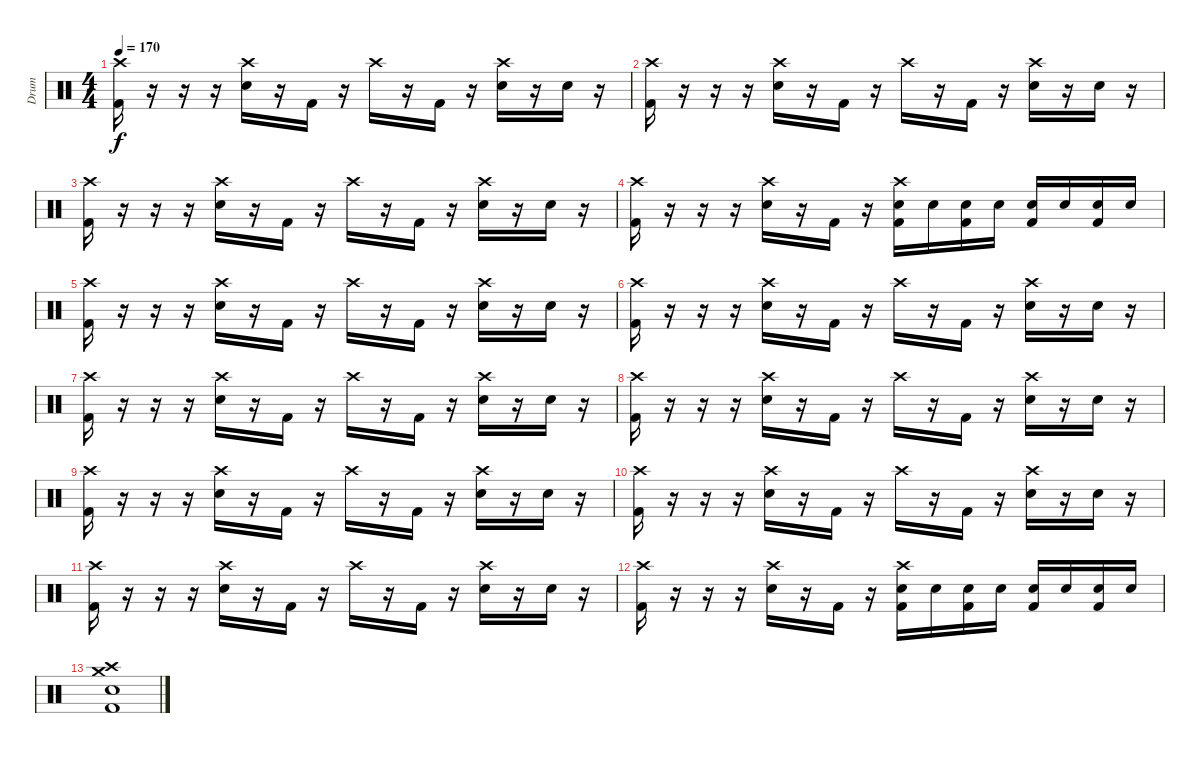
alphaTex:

\track ("Drum" "Drum") {instrument percussion}
\staff {score}
\articulation defaults
\ts (4 4)
\tempo 170
\clef neutral
\ks c
("Crash high (hit)" "Kick (hit) 2").16{dy f} r.16 r.16 r.16 ("Crash high (hit)" "Electric Snare (hit)").16 r.16 "Kick (hit) 2".16 r.16 "Crash high (hit)".16 r.16 "Kick (hit) 2".16 r.16 ("Crash high (hit)" "Electric Snare (hit)").16 r.16 "Electric Snare (hit)".16 r.16 |
("Crash high (hit)" "Kick (hit) 2").16 r.16 r.16 r.16 ("Crash high (hit)" "Electric Snare (hit)").16 r.16 "Kick (hit) 2".16 r.16 "Crash high (hit)".16 r.16 "Kick (hit) 2".16 r.16 ("Crash high (hit)" "Electric Snare (hit)").16 r.16 "Electric Snare (hit)".16 r.16 |
("Crash high (hit)" "Kick (hit) 2").16 r.16 r.16 r.16 ("Crash high (hit)" "Electric Snare (hit)").16 r.16 "Kick (hit) 2".16 r.16 "Crash high (hit)".16 r.16 "Kick (hit) 2".16 r.16 ("Crash high (hit)" "Electric Snare (hit)").16 r.16 "Electric Snare (hit)".16 r.16 |
("Crash high (hit)" "Kick (hit) 2").16 r.16 r.16 r.16 ("Crash high (hit)" "Electric Snare (hit)").16 r.16 "Kick (hit) 2".16 r.16 ("Crash high (hit)" "Electric Snare (hit)" "Kick (hit) 2").16 "Electric Snare (hit)".16 ("Electric Snare (hit)" "Kick (hit) 2").16 "Electric Snare (hit)".16 ("Electric Snare (hit)" "Kick (hit) 2").16 "Electric Snare (hit)".16 ("Electric Snare (hit)" "Kick (hit) 2").16 "Electric Snare (hit)".16 |
("Crash high (hit)" "Kick (hit) 2").16 r.16 r.16 r.16 ("Crash high (hit)" "Electric Snare (hit)").16 r.16 "Kick (hit) 2".16 r.16 "Crash high (hit)".16 r.16 "Kick (hit) 2".16 r.16 ("Crash high (hit)" "Electric Snare (hit)").16 r.16 "Electric Snare (hit)".16 r.16 |
("Crash high (hit)" "Kick (hit) 2").16 r.16 r.16 r.16 ("Crash high (hit)" "Electric Snare (hit)").16 r.16 "Kick (hit) 2".16 r.16 "Crash high (hit)".16 r.16 "Kick (hit) 2".16 r.16 ("Crash high (hit)" "Electric Snare (hit)").16 r.16 "Electric Snare (hit)".16 r.16 |
("Crash high (hit)" "Kick (hit) 2").16 r.16 r.16 r.16 ("Crash high (hit)" "Electric Snare (hit)").16 r.16 "Kick (hit) 2".16 r.16 "Crash high (hit)".16 r.16 "Kick (hit) 2".16 r.16 ("Crash high (hit)" "Electric Snare (hit)").16 r.16 "Electric Snare (hit)".16 r.16 |
("Crash high (hit)" "Kick (hit) 2").16 r.16 r.16 r.16 ("Crash high (hit)" "Electric Snare (hit)").16 r.16 "Kick (hit) 2".16 r.16 "Crash high (hit)".16 r.16 "Kick (hit) 2".16 r.16 ("Crash high (hit)" "Electric Snare (hit)").16 r.16 "Electric Snare (hit)".16 r.16 |
("Crash high (hit)" "Kick (hit) 2").16 r.16 r.16 r.16 ("Crash high (hit)" "Electric Snare (hit)").16 r.16 "Kick (hit) 2".16 r.16 "Crash high (hit)".16 r.16 "Kick (hit) 2".16 r.16 ("Crash high (hit)" "Electric Snare (hit)").16 r.16 "Electric Snare (hit)".16 r.16 |
("Crash high (hit)" "Kick (hit) 2").16 r.16 r.16 r.16 ("Crash high (hit)" "Electric Snare (hit)").16 r.16 "Kick (hit) 2".16 r.16 "Crash high (hit)".16 r.16 "Kick (hit) 2".16 r.16 ("Crash high (hit)" "Electric Snare (hit)").16 r.16 "Electric Snare (hit)".16 r.16 |
("Crash high (hit)" "Kick (hit) 2").16 r.16 r.16 r.16 ("Crash high (hit)" "Electric Snare (hit)").16 r.16 "Kick (hit) 2".16 r.16 "Crash high (hit)".16 r.16 "Kick (hit) 2".16 r.16 ("Crash high (hit)" "Electric Snare (hit)").16 r.16 "Electric Snare (hit)".16 r.16 |
("Crash high (hit)" "Kick (hit) 2").16 r.16 r.16 r.16 ("Crash high (hit)" "Electric Snare (hit)").16 r.16 "Kick (hit) 2".16 r.16 ("Crash high (hit)" "Electric Snare (hit)" "Kick (hit) 2").16 "Electric Snare (hit)".16 ("Electric Snare (hit)" "Kick (hit) 2").16 "Electric Snare (hit)".16 ("Electric Snare (hit)" "Kick (hit) 2").16 "Electric Snare (hit)".16 ("Electric Snare (hit)" "Kick (hit) 2").16 "Electric Snare (hit)".16 |
("Crash medium (hit)" "Crash high (hit)" "Electric Snare (hit)" "Kick (hit) 2").1
